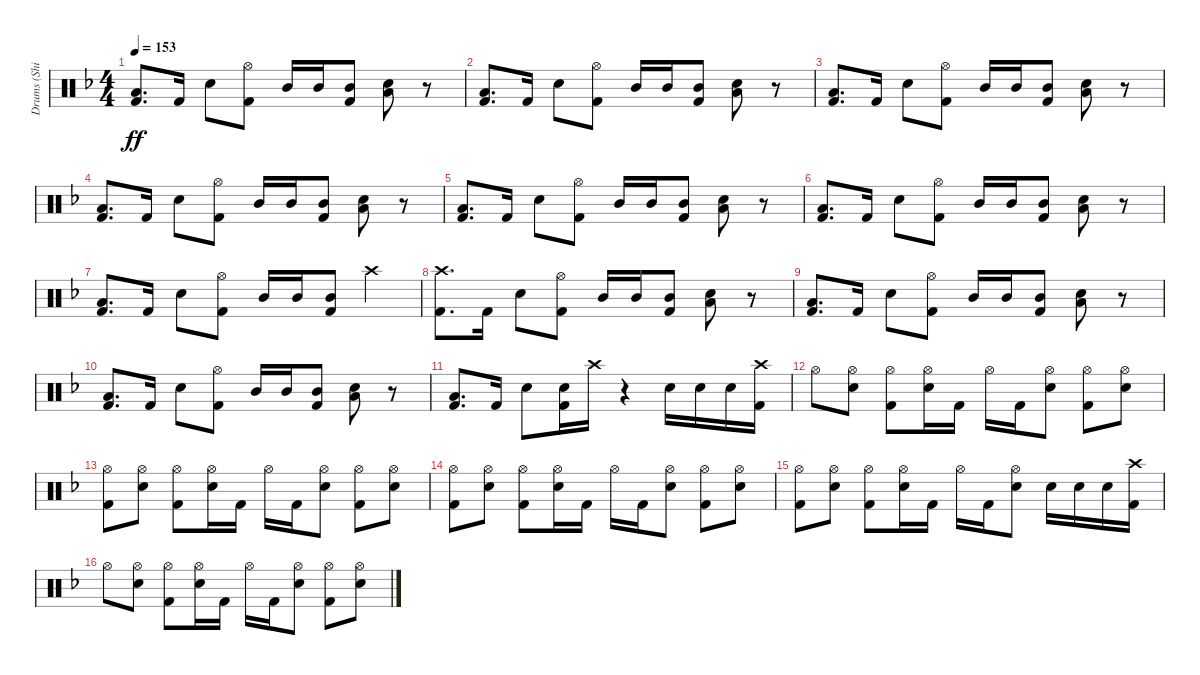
\track ("Drums (Shinya ! Shinya !)" "Drums (Shi") {instrument percussion}
\staff {score}
\articulation defaults
\ts (4 4)
\tempo 153
\clef neutral
\ks f
("Kick (hit) 2" "Low Floor Tom (hit)").8{d dy ff} "Kick (hit) 2".16 "Electric Snare (hit)".8 ("Hi-Hat (open)" "Kick (hit) 2").8 "Mid Tom (hit)".16 "Mid Tom (hit)".16 ("Kick (hit) 2" "Mid Tom (hit)").8 ("Electric Snare (hit)" "Low Tom (hit)").8 r.8 |
("Kick (hit) 2" "Low Floor Tom (hit)").8{d} "Kick (hit) 2".16 "Electric Snare (hit)".8 ("Hi-Hat (open)" "Kick (hit) 2").8 "Mid Tom (hit)".16 "Mid Tom (hit)".16 ("Kick (hit) 2" "Mid Tom (hit)").8 ("Electric Snare (hit)" "Low Tom (hit)").8 r.8 |
("Kick (hit) 2" "Low Floor Tom (hit)").8{d} "Kick (hit) 2".16 "Electric Snare (hit)".8 ("Hi-Hat (open)" "Kick (hit) 2").8 "Mid Tom (hit)".16 "Mid Tom (hit)".16 ("Kick (hit) 2" "Mid Tom (hit)").8 ("Electric Snare (hit)" "Low Tom (hit)").8 r.8 |
("Kick (hit) 2" "Low Floor Tom (hit)").8{d} "Kick (hit) 2".16 "Electric Snare (hit)".8 ("Hi-Hat (open)" "Kick (hit) 2").8 "Mid Tom (hit)".16 "Mid Tom (hit)".16 ("Kick (hit) 2" "Mid Tom (hit)").8 ("Electric Snare (hit)" "Low Tom (hit)").8 r.8 |
("Kick (hit) 2" "Low Floor Tom (hit)").8{d} "Kick (hit) 2".16 "Electric Snare (hit)".8 ("Hi-Hat (open)" "Kick (hit) 2").8 "Mid Tom (hit)".16 "Mid Tom (hit)".16 ("Kick (hit) 2" "Mid Tom (hit)").8 ("Electric Snare (hit)" "Low Tom (hit)").8 r.8 |
("Kick (hit) 2" "Low Floor Tom (hit)").8{d} "Kick (hit) 2".16 "Electric Snare (hit)".8 ("Hi-Hat (open)" "Kick (hit) 2").8 "Mid Tom (hit)".16 "Mid Tom (hit)".16 ("Kick (hit) 2" "Mid Tom (hit)").8 ("Electric Snare (hit)" "Low Tom (hit)").8 r.8 |
("Kick (hit) 2" "Low Floor Tom (hit)").8{d} "Kick (hit) 2".16 "Electric Snare (hit)".8 ("Hi-Hat (open)" "Kick (hit) 2").8 "Mid Tom (hit)".16 "Mid Tom (hit)".16 ("Kick (hit) 2" "Mid Tom (hit)").8 "Crash high (hit)".4 |
("Kick (hit) 2" "Crash high (hit)").8{d} "Kick (hit) 2".16 "Electric Snare (hit)".8 ("Hi-Hat (open)" "Kick (hit) 2").8 "Mid Tom (hit)".16 "Mid Tom (hit)".16 ("Kick (hit) 2" "Mid Tom (hit)").8 ("Electric Snare (hit)" "Low Tom (hit)").8 r.8 |
("Kick (hit) 2" "Low Floor Tom (hit)").8{d} "Kick (hit) 2".16 "Electric Snare (hit)".8 ("Hi-Hat (open)" "Kick (hit) 2").8 "Mid Tom (hit)".16 "Mid Tom (hit)".16 ("Kick (hit) 2" "Mid Tom (hit)").8 ("Electric Snare (hit)" "Low Tom (hit)").8 r.8 |
("Kick (hit) 2" "Low Floor Tom (hit)").8{d} "Kick (hit) 2".16 "Electric Snare (hit)".8 ("Hi-Hat (open)" "Kick (hit) 2").8 "Mid Tom (hit)".16 "Mid Tom (hit)".16 ("Kick (hit) 2" "Mid Tom (hit)").8 ("Electric Snare (hit)" "Low Tom (hit)").8 r.8 |
("Kick (hit) 2" "Low Floor Tom (hit)").8{d} "Kick (hit) 2".16 "Electric Snare (hit)".8 ("Kick (hit) 2" "Electric Snare (hit)").16 "Crash high (hit)".16 r.4 "Electric Snare (hit)".16 "Electric Snare (hit)".16 "Electric Snare (hit)".16 ("Crash high (hit)" "Kick (hit) 2").16 |
"Hi-Hat (open)".8 ("Electric Snare (hit)" "Hi-Hat (open)").8 ("Kick (hit) 2" "Hi-Hat (open)").8 ("Electric Snare (hit)" "Hi-Hat (open)").16 "Kick (hit) 2".16 "Hi-Hat (open)".16 "Kick (hit) 2".16 ("Electric Snare (hit)" "Hi-Hat (open)").8 ("Kick (hit) 2" "Hi-Hat (open)").8 ("Electric Snare (hit)" "Hi-Hat (open)").8 |
("Kick (hit) 2" "Hi-Hat (open)").8 ("Electric Snare (hit)" "Hi-Hat (open)").8 ("Kick (hit) 2" "Hi-Hat (open)").8 ("Electric Snare (hit)" "Hi-Hat (open)").16 "Kick (hit) 2".16 "Hi-Hat (open)".16 "Kick (hit) 2".16 ("Electric Snare (hit)" "Hi-Hat (open)").8 ("Kick (hit) 2" "Hi-Hat (open)").8 ("Electric Snare (hit)" "Hi-Hat (open)").8 |
("Kick (hit) 2" "Hi-Hat (open)").8 ("Electric Snare (hit)" "Hi-Hat (open)").8 ("Kick (hit) 2" "Hi-Hat (open)").8 ("Electric Snare (hit)" "Hi-Hat (open)").16 "Kick (hit) 2".16 "Hi-Hat (open)".16 "Kick (hit) 2".16 ("Electric Snare (hit)" "Hi-Hat (open)").8 ("Kick (hit) 2" "Hi-Hat (open)").8 ("Electric Snare (hit)" "Hi-Hat (open)").8 |
("Kick (hit) 2" "Hi-Hat (open)").8 ("Electric Snare (hit)" "Hi-Hat (open)").8 ("Kick (hit) 2" "Hi-Hat (open)").8 ("Electric Snare (hit)" "Hi-Hat (open)").16 "Kick (hit) 2".16 "Hi-Hat (open)".16 "Kick (hit) 2".16 ("Electric Snare (hit)" "Hi-Hat (open)").8 "Electric Snare (hit)".16 "Electric Snare (hit)".16 "Electric Snare (hit)".16 ("Crash high (hit)" "Kick (hit) 2").16 |
"Hi-Hat (open)".8 ("Electric Snare (hit)" "Hi-Hat (open)").8 ("Kick (hit) 2" "Hi-Hat (open)").8 ("Electric Snare (hit)" "Hi-Hat (open)").16 "Kick (hit) 2".16 "Hi-Hat (open)".16 "Kick (hit) 2".16 ("Electric Snare (hit)" "Hi-Hat (open)").8 ("Kick (hit) 2" "Hi-Hat (open)").8 ("Electric Snare (hit)" "Hi-Hat (open)").8
